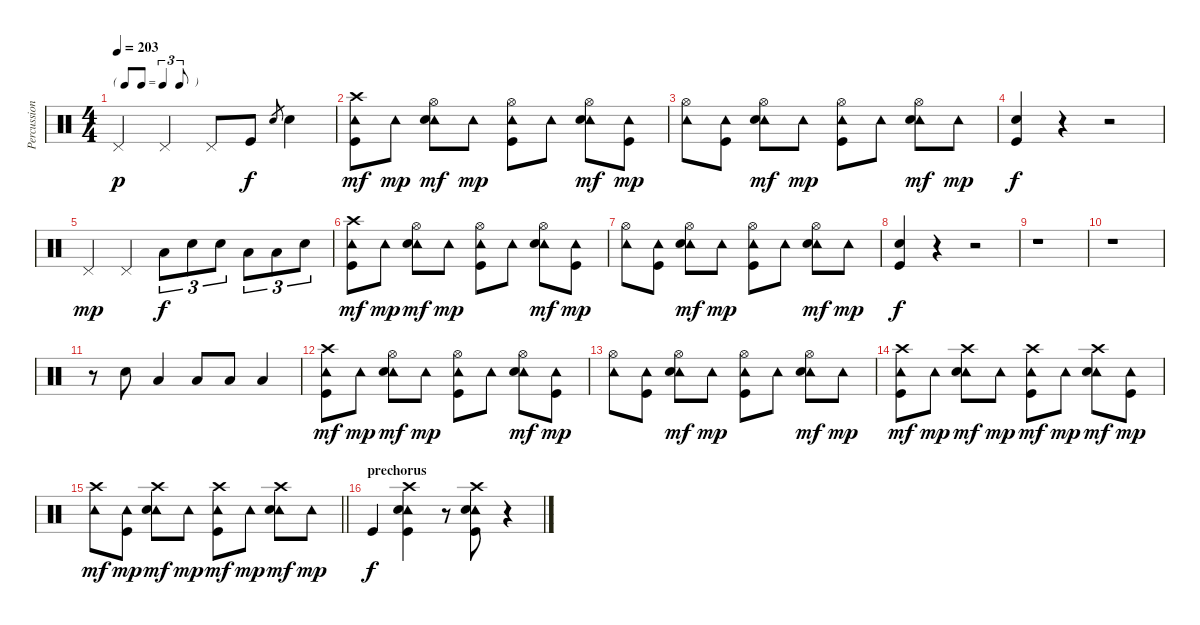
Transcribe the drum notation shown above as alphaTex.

\track ("Percussion" "Percussion") {instrument percussion}
\staff {score}
\articulation defaults
\ts (4 4)
\tf triplet8th
\tempo 203
\clef neutral
\ks c "Pedal Hi-Hat (hit)".4{dy p} "Pedal Hi-Hat (hit)".4 "Pedal Hi-Hat (hit)".8 "Kick (hit)".8{dy f} "Snare (hit) 2".8{gr} "Snare (hit) 2".4
|
("Tambourine (hit)" "Crash high (hit)" "Kick (hit)").8{dy mf} "Tambourine (hit)".8{dy mp} ("Tambourine (hit)" "Hi-Hat (open)" "Snare (hit) 2").8{dy mf} "Tambourine (hit)".8{dy mp} ("Tambourine (hit)" "Hi-Hat (open)" "Kick (hit)").8 "Tambourine (hit)".8 ("Tambourine (hit)" "Hi-Hat (open)" "Snare (hit) 2").8{dy mf} ("Tambourine (hit)" "Kick (hit)").8{dy mp} |
("Tambourine (hit)" "Hi-Hat (open)").8 ("Tambourine (hit)" "Kick (hit)").8 ("Tambourine (hit)" "Hi-Hat (open)" "Snare (hit) 2").8{dy mf} "Tambourine (hit)".8{dy mp} ("Tambourine (hit)" "Hi-Hat (open)" "Kick (hit)").8 "Tambourine (hit)".8 ("Tambourine (hit)" "Hi-Hat (open)" "Snare (hit) 2").8{dy mf} "Tambourine (hit)".8{dy mp} |
("Snare (hit) 2" "Kick (hit)").4{dy f} r.4 r.2 |
"Pedal Hi-Hat (hit)".4{dy mp} "Pedal Hi-Hat (hit)".4 "Low Tom (hit)".8{tu (3 2) dy f} "Snare (hit) 2".8{tu (3 2)} "Snare (hit) 2".8{tu (3 2)} "Low Tom (hit)".8{tu (3 2)} "Low Floor Tom (hit)".8{tu (3 2)} "Snare (hit) 2".8{tu (3 2)} |
("Tambourine (hit)" "Crash high (hit)" "Kick (hit)").8{dy mf} "Tambourine (hit)".8{dy mp} ("Tambourine (hit)" "Hi-Hat (open)" "Snare (hit) 2").8{dy mf} "Tambourine (hit)".8{dy mp} ("Tambourine (hit)" "Hi-Hat (open)" "Kick (hit)").8 "Tambourine (hit)".8 ("Tambourine (hit)" "Hi-Hat (open)" "Snare (hit) 2").8{dy mf} ("Tambourine (hit)" "Kick (hit)").8{dy mp} |
("Tambourine (hit)" "Hi-Hat (open)").8 ("Tambourine (hit)" "Kick (hit)").8 ("Tambourine (hit)" "Hi-Hat (open)" "Snare (hit) 2").8{dy mf} "Tambourine (hit)".8{dy mp} ("Tambourine (hit)" "Hi-Hat (open)" "Kick (hit)").8 "Tambourine (hit)".8 ("Tambourine (hit)" "Hi-Hat (open)" "Snare (hit) 2").8{dy mf} "Tambourine (hit)".8{dy mp} |
("Snare (hit) 2" "Kick (hit)").4{dy f} r.4 r.2 |
r.1 |
r.1 |
r.8 "Snare (hit) 2".8 "Low Floor Tom (hit)".4 "Low Floor Tom (hit)".8 "Low Floor Tom (hit)".8 "Low Floor Tom (hit)".4 |
("Tambourine (hit)" "Crash high (hit)" "Kick (hit)").8{dy mf} "Tambourine (hit)".8{dy mp} ("Tambourine (hit)" "Hi-Hat (open)" "Snare (hit) 2").8{dy mf} "Tambourine (hit)".8{dy mp} ("Tambourine (hit)" "Hi-Hat (open)" "Kick (hit)").8 "Tambourine (hit)".8 ("Tambourine (hit)" "Hi-Hat (open)" "Snare (hit) 2").8{dy mf} ("Tambourine (hit)" "Kick (hit)").8{dy mp} |
("Tambourine (hit)" "Hi-Hat (open)").8 ("Tambourine (hit)" "Kick (hit)").8 ("Tambourine (hit)" "Hi-Hat (open)" "Snare (hit) 2").8{dy mf} "Tambourine (hit)".8{dy mp} ("Tambourine (hit)" "Hi-Hat (open)" "Kick (hit)").8 "Tambourine (hit)".8 ("Tambourine (hit)" "Hi-Hat (open)" "Snare (hit) 2").8{dy mf} "Tambourine (hit)".8{dy mp} |
("Tambourine (hit)" "Crash high (hit)" "Kick (hit)").8{dy mf} "Tambourine (hit)".8{dy mp} ("Tambourine (hit)" "Crash high (hit)" "Snare (hit) 2").8{dy mf} "Tambourine (hit)".8{dy mp} ("Tambourine (hit)" "Crash high (hit)" "Kick (hit)").8{dy mf} "Tambourine (hit)".8{dy mp} ("Tambourine (hit)" "Crash high (hit)" "Snare (hit) 2").8{dy mf} ("Tambourine (hit)" "Kick (hit)").8{dy mp} |
\barLineRight lightlight
("Tambourine (hit)" "Crash high (hit)").8{dy mf} ("Tambourine (hit)" "Kick (hit)").8{dy mp} ("Tambourine (hit)" "Crash high (hit)" "Snare (hit) 2").8{dy mf} "Tambourine (hit)".8{dy mp} ("Tambourine (hit)" "Crash high (hit)" "Kick (hit)").8{dy mf} "Tambourine (hit)".8{dy mp} ("Tambourine (hit)" "Crash high (hit)" "Snare (hit) 2").8{dy mf} "Tambourine (hit)".8{dy mp} |
\section ("" "prechorus")
"Kick (hit)".4{dy f} ("Tambourine (hit)" "Crash high (hit)" "Snare (hit) 2" "Kick (hit)").4 r.8 ("Tambourine (hit)" "Crash high (hit)" "Snare (hit) 2" "Kick (hit)").8 r.4
